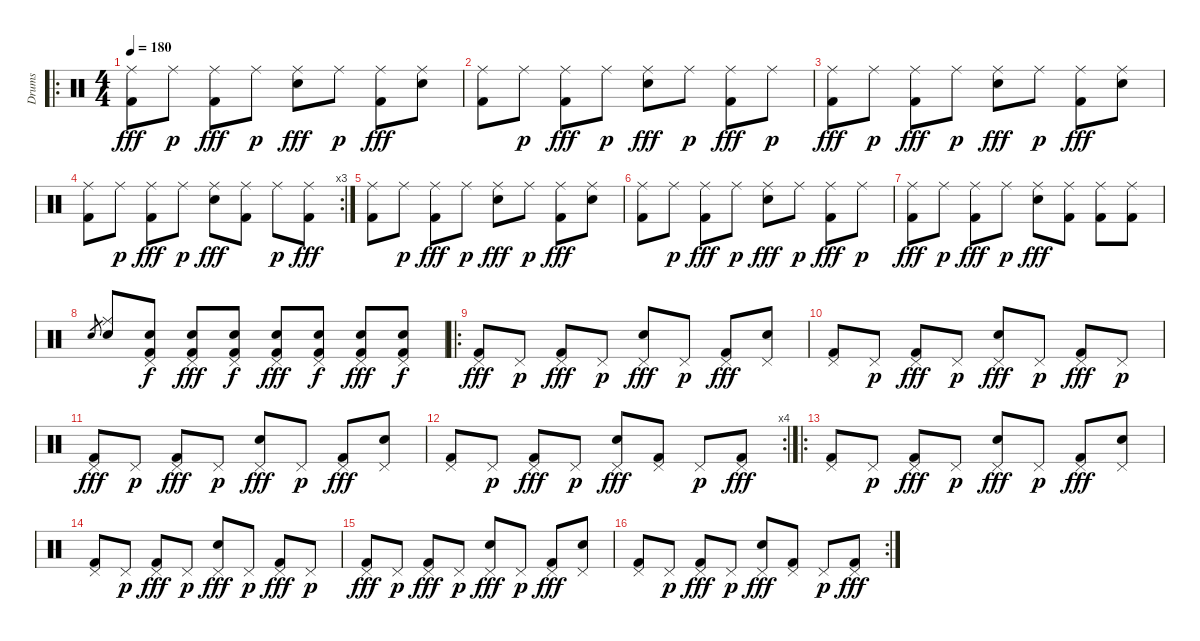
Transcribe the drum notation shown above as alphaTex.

\track ("Drums" "Drums") {instrument percussion}
\staff {score}
\articulation defaults
\ro
\ts (4 4)
\tempo 180
\clef neutral
\ks c
("Ride (middle)" "Kick (hit) 2").8{dy fff} "Ride (middle)".8{dy p} ("Ride (middle)" "Kick (hit) 2").8{dy fff} "Ride (middle)".8{dy p} ("Ride (middle)" "Electric Snare (hit)").8{dy fff} "Ride (middle)".8{dy p} ("Ride (middle)" "Kick (hit) 2").8{dy fff} ("Ride (middle)" "Electric Snare (hit)").8 |
("Ride (middle)" "Kick (hit) 2").8 "Ride (middle)".8{dy p} ("Ride (middle)" "Kick (hit) 2").8{dy fff} "Ride (middle)".8{dy p} ("Ride (middle)" "Electric Snare (hit)").8{dy fff} "Ride (middle)".8{dy p} ("Ride (middle)" "Kick (hit) 2").8{dy fff} "Ride (middle)".8{dy p} |
("Ride (middle)" "Kick (hit) 2").8{dy fff} "Ride (middle)".8{dy p} ("Ride (middle)" "Kick (hit) 2").8{dy fff} "Ride (middle)".8{dy p} ("Ride (middle)" "Electric Snare (hit)").8{dy fff} "Ride (middle)".8{dy p} ("Ride (middle)" "Kick (hit) 2").8{dy fff} ("Ride (middle)" "Electric Snare (hit)").8 |
\rc 3
("Ride (middle)" "Kick (hit) 2").8 "Ride (middle)".8{dy p} ("Ride (middle)" "Kick (hit) 2").8{dy fff} "Ride (middle)".8{dy p} ("Ride (middle)" "Electric Snare (hit)").8{dy fff} ("Ride (middle)" "Kick (hit) 2").8 "Ride (middle)".8{dy p} ("Ride (middle)" "Kick (hit) 2").8{dy fff} |
("Ride (middle)" "Kick (hit) 2").8 "Ride (middle)".8{dy p} ("Ride (middle)" "Kick (hit) 2").8{dy fff} "Ride (middle)".8{dy p} ("Ride (middle)" "Electric Snare (hit)").8{dy fff} "Ride (middle)".8{dy p} ("Ride (middle)" "Kick (hit) 2").8{dy fff} ("Ride (middle)" "Electric Snare (hit)").8 |
("Ride (middle)" "Kick (hit) 2").8 "Ride (middle)".8{dy p} ("Ride (middle)" "Kick (hit) 2").8{dy fff} "Ride (middle)".8{dy p} ("Ride (middle)" "Electric Snare (hit)").8{dy fff} "Ride (middle)".8{dy p} ("Ride (middle)" "Kick (hit) 2").8{dy fff} "Ride (middle)".8{dy p} |
("Ride (middle)" "Kick (hit) 2").8{dy fff} "Ride (middle)".8{dy p} ("Ride (middle)" "Kick (hit) 2").8{dy fff} "Ride (middle)".8{dy p} ("Ride (middle)" "Electric Snare (hit)").8{dy fff} ("Ride (middle)" "Kick (hit) 2").8 ("Ride (middle)" "Kick (hit) 2").8 ("Ride (middle)" "Kick (hit) 2").8 |
"Electric Snare (hit)".8{gr} ("Ride (middle)" "Electric Snare (hit)").8 ("Pedal Hi-Hat (hit)" "Kick (hit) 2" "Electric Snare (hit)").8{dy f} ("Pedal Hi-Hat (hit)" "Kick (hit) 2" "Electric Snare (hit)").8{dy fff} ("Pedal Hi-Hat (hit)" "Kick (hit) 2" "Electric Snare (hit)").8{dy f} ("Pedal Hi-Hat (hit)" "Kick (hit) 2" "Electric Snare (hit)").8{dy fff} ("Pedal Hi-Hat (hit)" "Kick (hit) 2" "Electric Snare (hit)").8{dy f} ("Pedal Hi-Hat (hit)" "Kick (hit) 2" "Electric Snare (hit)").8{dy fff} ("Pedal Hi-Hat (hit)" "Kick (hit) 2" "Electric Snare (hit)").8{dy f} |
\ro
("Pedal Hi-Hat (hit)" "Kick (hit) 2").8{dy fff} "Pedal Hi-Hat (hit)".8{dy p} ("Pedal Hi-Hat (hit)" "Kick (hit) 2").8{dy fff} "Pedal Hi-Hat (hit)".8{dy p} ("Pedal Hi-Hat (hit)" "Electric Snare (hit)").8{dy fff} "Pedal Hi-Hat (hit)".8{dy p} ("Pedal Hi-Hat (hit)" "Kick (hit) 2").8{dy fff} ("Pedal Hi-Hat (hit)" "Electric Snare (hit)").8 |
("Pedal Hi-Hat (hit)" "Kick (hit) 2").8 "Pedal Hi-Hat (hit)".8{dy p} ("Pedal Hi-Hat (hit)" "Kick (hit) 2").8{dy fff} "Pedal Hi-Hat (hit)".8{dy p} ("Pedal Hi-Hat (hit)" "Electric Snare (hit)").8{dy fff} "Pedal Hi-Hat (hit)".8{dy p} ("Pedal Hi-Hat (hit)" "Kick (hit) 2").8{dy fff} "Pedal Hi-Hat (hit)".8{dy p} |
("Pedal Hi-Hat (hit)" "Kick (hit) 2").8{dy fff} "Pedal Hi-Hat (hit)".8{dy p} ("Pedal Hi-Hat (hit)" "Kick (hit) 2").8{dy fff} "Pedal Hi-Hat (hit)".8{dy p} ("Pedal Hi-Hat (hit)" "Electric Snare (hit)").8{dy fff} "Pedal Hi-Hat (hit)".8{dy p} ("Pedal Hi-Hat (hit)" "Kick (hit) 2").8{dy fff} ("Pedal Hi-Hat (hit)" "Electric Snare (hit)").8 |
\rc 4
("Pedal Hi-Hat (hit)" "Kick (hit) 2").8 "Pedal Hi-Hat (hit)".8{dy p} ("Pedal Hi-Hat (hit)" "Kick (hit) 2").8{dy fff} "Pedal Hi-Hat (hit)".8{dy p} ("Pedal Hi-Hat (hit)" "Electric Snare (hit)").8{dy fff} ("Pedal Hi-Hat (hit)" "Kick (hit) 2").8 "Pedal Hi-Hat (hit)".8{dy p} ("Pedal Hi-Hat (hit)" "Kick (hit) 2").8{dy fff} |
\ro
("Pedal Hi-Hat (hit)" "Kick (hit) 2").8 "Pedal Hi-Hat (hit)".8{dy p} ("Pedal Hi-Hat (hit)" "Kick (hit) 2").8{dy fff} "Pedal Hi-Hat (hit)".8{dy p} ("Pedal Hi-Hat (hit)" "Electric Snare (hit)").8{dy fff} "Pedal Hi-Hat (hit)".8{dy p} ("Pedal Hi-Hat (hit)" "Kick (hit) 2").8{dy fff} ("Pedal Hi-Hat (hit)" "Electric Snare (hit)").8 |
("Pedal Hi-Hat (hit)" "Kick (hit) 2").8 "Pedal Hi-Hat (hit)".8{dy p} ("Pedal Hi-Hat (hit)" "Kick (hit) 2").8{dy fff} "Pedal Hi-Hat (hit)".8{dy p} ("Pedal Hi-Hat (hit)" "Electric Snare (hit)").8{dy fff} "Pedal Hi-Hat (hit)".8{dy p} ("Pedal Hi-Hat (hit)" "Kick (hit) 2").8{dy fff} "Pedal Hi-Hat (hit)".8{dy p} |
("Pedal Hi-Hat (hit)" "Kick (hit) 2").8{dy fff} "Pedal Hi-Hat (hit)".8{dy p} ("Pedal Hi-Hat (hit)" "Kick (hit) 2").8{dy fff} "Pedal Hi-Hat (hit)".8{dy p} ("Pedal Hi-Hat (hit)" "Electric Snare (hit)").8{dy fff} "Pedal Hi-Hat (hit)".8{dy p} ("Pedal Hi-Hat (hit)" "Kick (hit) 2").8{dy fff} ("Pedal Hi-Hat (hit)" "Electric Snare (hit)").8 |
\rc 2
("Pedal Hi-Hat (hit)" "Kick (hit) 2").8 "Pedal Hi-Hat (hit)".8{dy p} ("Pedal Hi-Hat (hit)" "Kick (hit) 2").8{dy fff} "Pedal Hi-Hat (hit)".8{dy p} ("Pedal Hi-Hat (hit)" "Electric Snare (hit)").8{dy fff} ("Pedal Hi-Hat (hit)" "Kick (hit) 2").8 "Pedal Hi-Hat (hit)".8{dy p} ("Pedal Hi-Hat (hit)" "Kick (hit) 2").8{dy fff}
